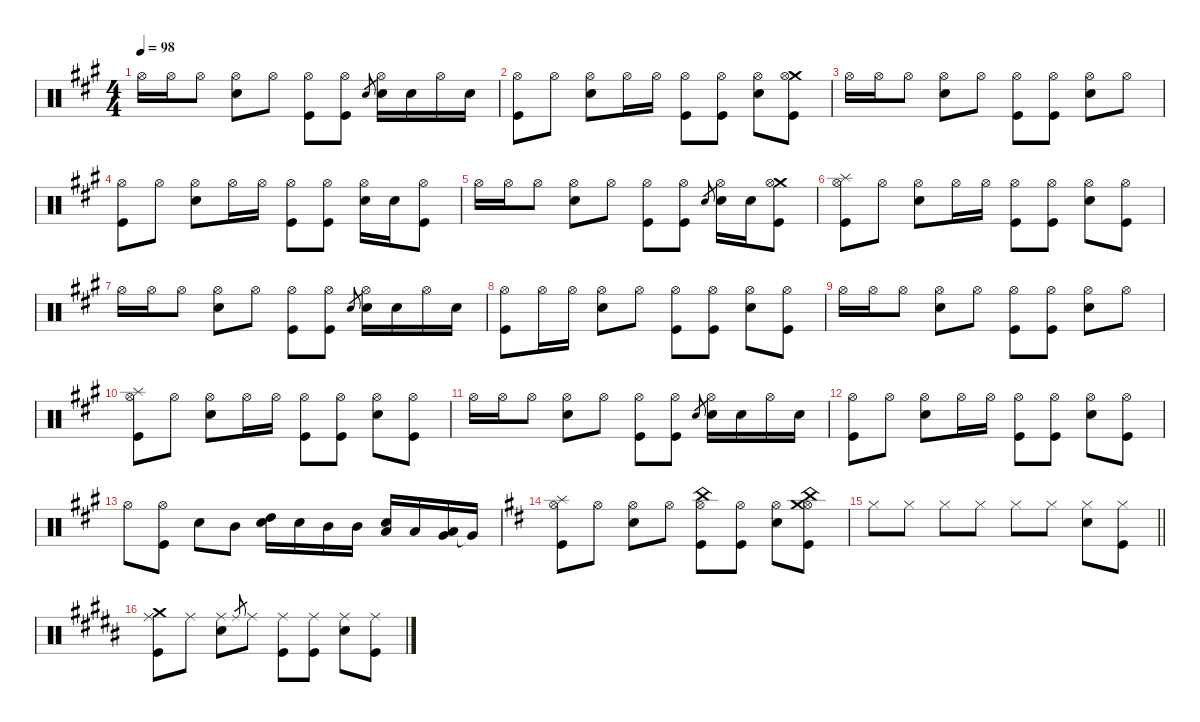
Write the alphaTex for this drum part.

\defaultSystemsLayout 4
\hideDynamics
\bracketExtendMode nobrackets
\singleTrackTrackNamePolicy hidden
\multiTrackTrackNamePolicy hidden
\firstSystemTrackNameMode fullname
\otherSystemsTrackNameOrientation horizontal
\track ("Drums" "drm.") {instrument percussion}
\staff {score}
\articulation defaults
\ts (4 4)
\tempo 98
\clef neutral
\ks f#minor "Hi-Hat (open)"{acc forcenatural}.16{dy mf beam Down} "Hi-Hat (open)"{acc forcenatural}.16{dy f beam Down} "Hi-Hat (open)"{acc forcenatural}.8{beam Down}
("Hi-Hat (open)"{acc forcenatural} "Snare (hit) 2"{acc forcenatural}).8{beam Down} "Hi-Hat (open)"{acc forcenatural}.8{beam Down} ("Hi-Hat (open)"{acc forcenatural} "Kick (hit)"{acc forcenatural}).8{beam Down} ("Hi-Hat (open)"{acc forcenatural} "Kick (hit)"{acc forcenatural}).8{beam Down} "Electric Snare (hit)"{acc forcenatural}.8{gr dy p beam Up} ("Hi-Hat (open)"{acc forcenatural} "Snare (hit) 2"{acc forcenatural}).16{dy f beam Down} "Snare (hit) 2"{acc forcenatural}.16{beam Down} "Hi-Hat (open)"{acc forcenatural}.16{beam Down} "Snare (hit) 2"{acc forcenatural}.16{beam Down} |
("Hi-Hat (open)"{acc forcenatural} "Kick (hit)"{acc forcenatural}).8{beam Down} "Hi-Hat (open)"{acc forcenatural}.8{beam Down} ("Hi-Hat (open)"{acc forcenatural} "Snare (hit) 2"{acc forcenatural}).8{beam Down} "Hi-Hat (open)"{acc forcenatural}.16{beam Down} "Hi-Hat (open)"{acc forcenatural}.16{beam Down} ("Hi-Hat (open)"{acc forcenatural} "Kick (hit)"{acc forcenatural}).8{beam Down} ("Hi-Hat (open)"{acc forcenatural} "Kick (hit)"{acc forcenatural}).8{beam Down} ("Hi-Hat (open)"{acc forcenatural} "Snare (hit) 2"{acc forcenatural}).8{beam Down} ("Crash medium (hit)"{acc forcenatural} "Hi-Hat (open)"{acc forcenatural} "Kick (hit)"{acc forcenatural}).8{beam Down} |
"Hi-Hat (open)"{acc forcenatural}.16{dy mf beam Down} "Hi-Hat (open)"{acc forcenatural}.16{dy f beam Down} "Hi-Hat (open)"{acc forcenatural}.8{beam Down} ("Hi-Hat (open)"{acc forcenatural} "Snare (hit) 2"{acc forcenatural}).8{beam Down} "Hi-Hat (open)"{acc forcenatural}.8{beam Down} ("Hi-Hat (open)"{acc forcenatural} "Kick (hit)"{acc forcenatural}).8{beam Down} ("Hi-Hat (open)"{acc forcenatural} "Kick (hit)"{acc forcenatural}).8{beam Down} ("Hi-Hat (open)"{acc forcenatural} "Snare (hit) 2"{acc forcenatural}).8{beam Down} "Hi-Hat (open)"{acc forcenatural}.8{beam Down} |
("Hi-Hat (open)"{acc forcenatural} "Kick (hit)"{acc forcenatural}).8{beam Down} "Hi-Hat (open)"{acc forcenatural}.8{beam Down} ("Hi-Hat (open)"{acc forcenatural} "Snare (hit) 2"{acc forcenatural}).8{beam Down} "Hi-Hat (open)"{acc forcenatural}.16{beam Down} "Hi-Hat (open)"{acc forcenatural}.16{beam Down} ("Hi-Hat (open)"{acc forcenatural} "Kick (hit)"{acc forcenatural}).8{beam Down} ("Hi-Hat (open)"{acc forcenatural} "Kick (hit)"{acc forcenatural}).8{beam Down} ("Hi-Hat (open)"{acc forcenatural} "Snare (hit) 2"{acc forcenatural}).16{beam Down} "Snare (hit) 2"{acc forcenatural}.16{beam Down} ("Hi-Hat (open)"{acc forcenatural} "Kick (hit)"{acc forcenatural}).8{beam Down} |
"Hi-Hat (open)"{acc forcenatural}.16{dy mf beam Down} "Hi-Hat (open)"{acc forcenatural}.16{dy f beam Down} "Hi-Hat (open)"{acc forcenatural}.8{beam Down} ("Hi-Hat (open)"{acc forcenatural} "Snare (hit) 2"{acc forcenatural}).8{beam Down} "Hi-Hat (open)"{acc forcenatural}.8{beam Down} ("Hi-Hat (open)"{acc forcenatural} "Kick (hit)"{acc forcenatural}).8{beam Down} ("Hi-Hat (open)"{acc forcenatural} "Kick (hit)"{acc forcenatural}).8{beam Down} "Electric Snare (hit)"{acc forcenatural}.8{gr dy mp beam Up} ("Hi-Hat (open)"{acc forcenatural} "Snare (hit) 2"{acc forcenatural}).16{dy f beam Down} "Snare (hit) 2"{acc forcenatural}.16{beam Down} ("Crash medium (hit)"{acc forcenatural} "Hi-Hat (open)"{acc forcenatural} "Kick (hit)"{acc forcenatural}).8{beam Down} |
("Splash (hit)"{acc forcenatural} "Hi-Hat (open)"{acc forcenatural} "Kick (hit)"{acc forcenatural}).8{dy mp beam Down} "Hi-Hat (open)"{acc forcenatural}.8{dy f beam Down} ("Hi-Hat (open)"{acc forcenatural} "Snare (hit) 2"{acc forcenatural}).8{beam Down} "Hi-Hat (open)"{acc forcenatural}.16{beam Down} "Hi-Hat (open)"{acc forcenatural}.16{beam Down} ("Hi-Hat (open)"{acc forcenatural} "Kick (hit)"{acc forcenatural}).8{beam Down} ("Hi-Hat (open)"{acc forcenatural} "Kick (hit)"{acc forcenatural}).8{beam Down} ("Hi-Hat (open)"{acc forcenatural} "Snare (hit) 2"{acc forcenatural}).8{beam Down} ("Hi-Hat (open)"{acc forcenatural} "Kick (hit)"{acc forcenatural}).8{beam Down} |
"Hi-Hat (open)"{acc forcenatural}.16{dy mf beam Down} "Hi-Hat (open)"{acc forcenatural}.16{dy f beam Down} "Hi-Hat (open)"{acc forcenatural}.8{beam Down} ("Hi-Hat (open)"{acc forcenatural} "Snare (hit) 2"{acc forcenatural}).8{beam Down} "Hi-Hat (open)"{acc forcenatural}.8{beam Down} ("Hi-Hat (open)"{acc forcenatural} "Kick (hit)"{acc forcenatural}).8{beam Down} ("Hi-Hat (open)"{acc forcenatural} "Kick (hit)"{acc forcenatural}).8{beam Down} "Electric Snare (hit)"{acc forcenatural}.8{gr dy p beam Up} ("Hi-Hat (open)"{acc forcenatural} "Snare (hit) 2"{acc forcenatural}).16{dy f beam Down} "Snare (hit) 2"{acc forcenatural}.16{beam Down} "Hi-Hat (open)"{acc forcenatural}.16{beam Down} "Snare (hit) 2"{acc forcenatural}.16{beam Down} |
("Hi-Hat (open)"{acc forcenatural} "Kick (hit)"{acc forcenatural}).8{beam Down} "Hi-Hat (open)"{acc forcenatural}.16{beam Down} "Hi-Hat (open)"{acc forcenatural}.16{beam Down} ("Hi-Hat (open)"{acc forcenatural} "Snare (hit) 2"{acc forcenatural}).8{beam Down} "Hi-Hat (open)"{acc forcenatural}.8{beam Down} ("Hi-Hat (open)"{acc forcenatural} "Kick (hit)"{acc forcenatural}).8{beam Down} ("Hi-Hat (open)"{acc forcenatural} "Kick (hit)"{acc forcenatural}).8{beam Down} ("Hi-Hat (open)"{acc forcenatural} "Snare (hit) 2"{acc forcenatural}).8{beam Down} ("Hi-Hat (open)"{acc forcenatural} "Kick (hit)"{acc forcenatural}).8{beam Down} |
"Hi-Hat (open)"{acc forcenatural}.16{dy mf beam Down} "Hi-Hat (open)"{acc forcenatural}.16{dy f beam Down} "Hi-Hat (open)"{acc forcenatural}.8{beam Down} ("Hi-Hat (open)"{acc forcenatural} "Snare (hit) 2"{acc forcenatural}).8{beam Down} "Hi-Hat (open)"{acc forcenatural}.8{beam Down} ("Hi-Hat (open)"{acc forcenatural} "Kick (hit)"{acc forcenatural}).8{beam Down} ("Hi-Hat (open)"{acc forcenatural} "Kick (hit)"{acc forcenatural}).8{beam Down} ("Hi-Hat (open)"{acc forcenatural} "Snare (hit) 2"{acc forcenatural}).8{beam Down} "Hi-Hat (open)"{acc forcenatural}.8{beam Down} |
("Splash (hit)"{acc forcenatural} "Hi-Hat (open)"{acc forcenatural} "Kick (hit)"{acc forcenatural}).8{dy mp beam Down} "Hi-Hat (open)"{acc forcenatural}.8{dy f beam Down} ("Hi-Hat (open)"{acc forcenatural} "Snare (hit) 2"{acc forcenatural}).8{beam Down} "Hi-Hat (open)"{acc forcenatural}.16{beam Down} "Hi-Hat (open)"{acc forcenatural}.16{beam Down} ("Hi-Hat (open)"{acc forcenatural} "Kick (hit)"{acc forcenatural}).8{beam Down} ("Hi-Hat (open)"{acc forcenatural} "Kick (hit)"{acc forcenatural}).8{beam Down} ("Hi-Hat (open)"{acc forcenatural} "Snare (hit) 2"{acc forcenatural}).8{beam Down} ("Hi-Hat (open)"{acc forcenatural} "Kick (hit)"{acc forcenatural}).8{beam Down} |
"Hi-Hat (open)"{acc forcenatural}.16{dy mf beam Down} "Hi-Hat (open)"{acc forcenatural}.16{dy f beam Down} "Hi-Hat (open)"{acc forcenatural}.8{beam Down} ("Hi-Hat (open)"{acc forcenatural} "Snare (hit) 2"{acc forcenatural}).8{beam Down} "Hi-Hat (open)"{acc forcenatural}.8{beam Down} ("Hi-Hat (open)"{acc forcenatural} "Kick (hit)"{acc forcenatural}).8{beam Down} ("Hi-Hat (open)"{acc forcenatural} "Kick (hit)"{acc forcenatural}).8{beam Down} "Electric Snare (hit)"{acc forcenatural}.8{gr dy p beam Up} ("Hi-Hat (open)"{acc forcenatural} "Snare (hit) 2"{acc forcenatural}).16{dy f beam Down} "Snare (hit) 2"{acc forcenatural}.16{beam Down} "Hi-Hat (open)"{acc forcenatural}.16{beam Down} "Snare (hit) 2"{acc forcenatural}.16{beam Down} |
("Hi-Hat (open)"{acc forcenatural} "Kick (hit)"{acc forcenatural}).8{beam Down} "Hi-Hat (open)"{acc forcenatural}.8{beam Down} ("Hi-Hat (open)"{acc forcenatural} "Snare (hit) 2"{acc forcenatural}).8{beam Down} "Hi-Hat (open)"{acc forcenatural}.16{beam Down} "Hi-Hat (open)"{acc forcenatural}.16{beam Down} ("Hi-Hat (open)"{acc forcenatural} "Kick (hit)"{acc forcenatural}).8{beam Down} ("Hi-Hat (open)"{acc forcenatural} "Kick (hit)"{acc forcenatural}).8{beam Down} ("Hi-Hat (open)"{acc forcenatural} "Snare (hit) 2"{acc forcenatural}).8{beam Down} ("Hi-Hat (open)"{acc forcenatural} "Kick (hit)"{acc forcenatural}).8{beam Down} |
"Hi-Hat (open)"{acc forcenatural}.8{beam Down} ("Hi-Hat (open)"{acc forcenatural} "Kick (hit)"{acc forcenatural}).8{beam Down} "Snare (hit) 2"{acc forcenatural}.8{beam Down} "Mid Tom (hit)"{acc forcenatural}.8{beam Down} ("High Tom (hit)"{acc forcenatural} "Snare (hit) 2"{acc forcenatural}).16{beam Down} "Snare (hit) 2"{acc forcenatural}.16{beam Down} "Mid Tom (hit)"{acc forcenatural}.16{beam Down} "Mid Tom (hit)"{acc forcenatural}.16{beam Down} ("Low Tom (hit)"{acc forcenatural} "Snare (hit) 2"{acc forcenatural}).16{beam Up} "Low Tom (hit)"{acc forcenatural}.16{beam Up} ("Low Tom (hit)"{acc forcenatural} "Very Low Tom (hit)"{acc forcenatural}).16{beam Up} "Very Low Tom (hit)"{t acc forcenatural}.16{beam Up} |
\ks bminor
("Splash (hit)"{acc forcenatural} "Hi-Hat (open)"{acc forcenatural} "Kick (hit)"{acc forcenatural}).8{dy mp beam Down} "Hi-Hat (open)"{acc forcenatural}.8{dy f beam Down} ("Hi-Hat (open)"{acc forcenatural} "Snare (hit) 2"{acc forcenatural}).8{beam Down} "Hi-Hat (open)"{acc forcenatural}.8{beam Down} ("China (hit)"{acc forcenatural} "Hi-Hat (open)"{acc forcenatural} "Kick (hit)"{acc forcenatural}).8{dy mf beam Down} ("Hi-Hat (open)"{acc forcenatural} "Kick (hit)"{acc forcenatural}).8{dy f beam Down} ("Hi-Hat (open)"{acc forcenatural} "Snare (hit) 2"{acc forcenatural}).8{beam Down} ("China (hit)"{acc forcenatural} "Hi-Hat (open)"{acc forcenatural} "Crash medium (hit)"{acc forcenatural} "Kick (hit)"{acc forcenatural}).8{dy mf beam Down} |
\barLineRight lightlight "Hi-Hat (closed)"{acc forcenatural}.8{dy p beam Down} "Hi-Hat (closed)"{acc forcenatural}.8{beam Down} "Hi-Hat (closed)"{acc forcenatural}.8{beam Down} "Hi-Hat (closed)"{acc forcenatural}.8{beam Down} "Hi-Hat (closed)"{acc forcenatural}.8{beam Down} "Hi-Hat (closed)"{acc forcenatural}.8{beam Down}
("Hi-Hat (closed)"{acc forcenatural} "Snare (hit) 2"{acc forcenatural}).8{beam Down} ("Hi-Hat (closed)"{acc forcenatural} "Kick (hit)"{acc forcenatural}).8{beam Down} |
\ks g#minor
("Crash medium (hit)"{acc bb} "Ride (middle)"{acc bb} "Kick (hit)"{acc bb}).8{dy mf beam Down} "Ride (middle)"{acc bb}.8{dy f beam Down} ("Ride (middle)"{acc bb} "Snare (hit) 2"{acc bb}).8{beam Down} "Ride (middle)"{acc bb}.8{gr dy mf beam Up} "Ride (middle)"{acc bb}.8{dy f beam Down} ("Ride (middle)"{acc bb} "Kick (hit)"{acc bb}).8{beam Down} ("Ride (middle)"{acc bb} "Kick (hit)"{acc bb}).8{beam Down} ("Ride (middle)"{acc bb} "Snare (hit) 2"{acc bb}).8{beam Down} ("Ride (middle)"{acc bb} "Kick (hit)"{acc bb}).8{beam Down}
